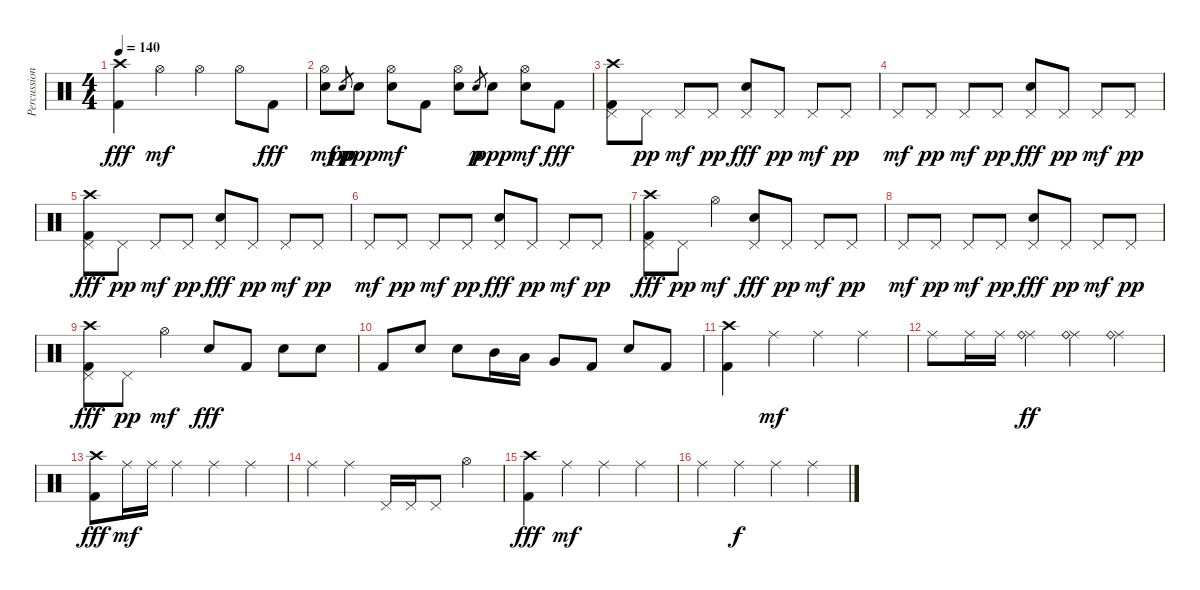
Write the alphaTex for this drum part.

\track ("Percussion" "Percussion") {instrument percussion}
\staff {score}
\articulation defaults
\ts (4 4)
\tempo 140
\clef neutral
\ks c
("Crash high (hit)" "Kick (hit) 2").4{dy fff} "Hi-Hat (open)".4{dy mf} "Hi-Hat (open)".4 "Hi-Hat (open)".8 "Kick (hit) 2".8{dy fff} |
("Hi-Hat (open)" "Electric Snare (hit)").8{dy mf} "Electric Snare (hit)".8{gr dy pp} "Electric Snare (hit)".8{dy ppp} ("Hi-Hat (open)" "Electric Snare (hit)").8{dy mf} "Kick (hit) 2".8 ("Hi-Hat (open)" "Electric Snare (hit)").8 "Electric Snare (hit)".8{gr dy p} "Electric Snare (hit)".8{dy ppp} ("Hi-Hat (open)" "Electric Snare (hit)").8{dy mf} "Kick (hit) 2".8{dy fff} |
("Crash high (hit)" "Pedal Hi-Hat (hit)" "Kick (hit) 2").8 "Pedal Hi-Hat (hit)".8{dy pp} "Pedal Hi-Hat (hit)".8{dy mf} "Pedal Hi-Hat (hit)".8{dy pp} ("Pedal Hi-Hat (hit)" "Electric Snare (hit)").8{dy fff} "Pedal Hi-Hat (hit)".8{dy pp} "Pedal Hi-Hat (hit)".8{dy mf} "Pedal Hi-Hat (hit)".8{dy pp} |
"Pedal Hi-Hat (hit)".8{dy mf} "Pedal Hi-Hat (hit)".8{dy pp} "Pedal Hi-Hat (hit)".8{dy mf} "Pedal Hi-Hat (hit)".8{dy pp} ("Pedal Hi-Hat (hit)" "Electric Snare (hit)").8{dy fff} "Pedal Hi-Hat (hit)".8{dy pp} "Pedal Hi-Hat (hit)".8{dy mf} "Pedal Hi-Hat (hit)".8{dy pp} |
("Crash high (hit)" "Pedal Hi-Hat (hit)" "Kick (hit) 2").8{dy fff} "Pedal Hi-Hat (hit)".8{dy pp} "Pedal Hi-Hat (hit)".8{dy mf} "Pedal Hi-Hat (hit)".8{dy pp} ("Pedal Hi-Hat (hit)" "Electric Snare (hit)").8{dy fff} "Pedal Hi-Hat (hit)".8{dy pp} "Pedal Hi-Hat (hit)".8{dy mf} "Pedal Hi-Hat (hit)".8{dy pp} |
"Pedal Hi-Hat (hit)".8{dy mf} "Pedal Hi-Hat (hit)".8{dy pp} "Pedal Hi-Hat (hit)".8{dy mf} "Pedal Hi-Hat (hit)".8{dy pp} ("Pedal Hi-Hat (hit)" "Electric Snare (hit)").8{dy fff} "Pedal Hi-Hat (hit)".8{dy pp} "Pedal Hi-Hat (hit)".8{dy mf} "Pedal Hi-Hat (hit)".8{dy pp} |
("Crash high (hit)" "Pedal Hi-Hat (hit)" "Kick (hit) 2").8{dy fff} "Pedal Hi-Hat (hit)".8{dy pp} "Hi-Hat (open)".4{dy mf} ("Pedal Hi-Hat (hit)" "Electric Snare (hit)").8{dy fff} "Pedal Hi-Hat (hit)".8{dy pp} "Pedal Hi-Hat (hit)".8{dy mf} "Pedal Hi-Hat (hit)".8{dy pp} |
"Pedal Hi-Hat (hit)".8{dy mf} "Pedal Hi-Hat (hit)".8{dy pp} "Pedal Hi-Hat (hit)".8{dy mf} "Pedal Hi-Hat (hit)".8{dy pp} ("Pedal Hi-Hat (hit)" "Electric Snare (hit)").8{dy fff} "Pedal Hi-Hat (hit)".8{dy pp} "Pedal Hi-Hat (hit)".8{dy mf} "Pedal Hi-Hat (hit)".8{dy pp} |
("Crash high (hit)" "Pedal Hi-Hat (hit)" "Kick (hit) 2").8{dy fff} "Pedal Hi-Hat (hit)".8{dy pp} "Hi-Hat (open)".4{dy mf} "Electric Snare (hit)".8{dy fff} "Kick (hit) 2".8 "Electric Snare (hit)".8 "Electric Snare (hit)".8 |
"Kick (hit) 2".8 "Electric Snare (hit)".8 "Electric Snare (hit)".8 "Mid Tom (hit)".16 "Low Tom (hit)".16 "Very Low Tom (hit)".8 "Kick (hit) 2".8 "Electric Snare (hit)".8 "Kick (hit) 2".8 |
("Crash high (hit)" "Kick (hit) 2").4 "Ride (middle)".4{dy mf} "Ride (middle)".4 "Ride (middle)".4 |
"Ride (middle)".8 "Ride (middle)".16 "Ride (middle)".16 ("Ride (middle)" "Ride (bell)").4{dy ff} ("Ride (middle)" "Ride (bell)").4 ("Ride (middle)" "Ride (bell)").4 |
("Crash high (hit)" "Kick (hit) 2").8{dy fff} "Ride (middle)".16{dy mf} "Ride (middle)".16 "Ride (middle)".4 "Ride (middle)".4 "Ride (middle)".4 |
"Ride (middle)".4 "Ride (middle)".4 "Pedal Hi-Hat (hit)".16 "Pedal Hi-Hat (hit)".16 "Pedal Hi-Hat (hit)".8 "Hi-Hat (open)".4 |
("Crash high (hit)" "Kick (hit) 2").4{dy fff} "Ride (middle)".4{dy mf} "Ride (middle)".4 "Ride (middle)".4 |
"Ride (middle)".4 "Ride (middle)".4{dy f} "Ride (middle)".4 "Ride (middle)".4
